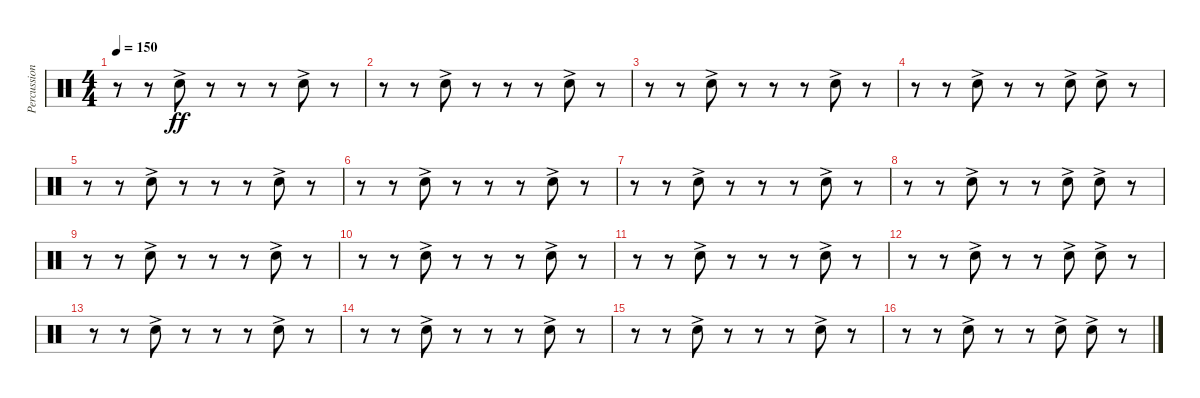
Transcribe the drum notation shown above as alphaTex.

\track ("Percussion" "Percussion") {instrument percussion}
\staff {score}
\articulation defaults
\ts (4 4)
\tempo 150
\clef neutral
\ks c
r.8{dy ff} r.8 "Snare (hit) 2"{ac}.8 r.8 r.8 r.8 "Snare (hit) 2"{ac}.8 r.8 |
r.8 r.8 "Snare (hit) 2"{ac}.8 r.8 r.8 r.8 "Snare (hit) 2"{ac}.8 r.8 |
r.8 r.8 "Snare (hit) 2"{ac}.8 r.8 r.8 r.8 "Snare (hit) 2"{ac}.8 r.8 |
r.8 r.8 "Snare (hit) 2"{ac}.8 r.8 r.8 "Snare (hit) 2"{ac}.8 "Snare (hit) 2"{ac}.8 r.8 |
r.8 r.8 "Snare (hit) 2"{ac}.8 r.8 r.8 r.8 "Snare (hit) 2"{ac}.8 r.8 |
r.8 r.8 "Snare (hit) 2"{ac}.8 r.8 r.8 r.8 "Snare (hit) 2"{ac}.8 r.8 |
r.8 r.8 "Snare (hit) 2"{ac}.8 r.8 r.8 r.8 "Snare (hit) 2"{ac}.8 r.8 |
r.8 r.8 "Snare (hit) 2"{ac}.8 r.8 r.8 "Snare (hit) 2"{ac}.8 "Snare (hit) 2"{ac}.8 r.8 |
r.8 r.8 "Snare (hit) 2"{ac}.8 r.8 r.8 r.8 "Snare (hit) 2"{ac}.8 r.8 |
r.8 r.8 "Snare (hit) 2"{ac}.8 r.8 r.8 r.8 "Snare (hit) 2"{ac}.8 r.8 |
r.8 r.8 "Snare (hit) 2"{ac}.8 r.8 r.8 r.8 "Snare (hit) 2"{ac}.8 r.8 |
r.8 r.8 "Snare (hit) 2"{ac}.8 r.8 r.8 "Snare (hit) 2"{ac}.8 "Snare (hit) 2"{ac}.8 r.8 |
r.8 r.8 "Snare (hit) 2"{ac}.8 r.8 r.8 r.8 "Snare (hit) 2"{ac}.8 r.8 |
r.8 r.8 "Snare (hit) 2"{ac}.8 r.8 r.8 r.8 "Snare (hit) 2"{ac}.8 r.8 |
r.8 r.8 "Snare (hit) 2"{ac}.8 r.8 r.8 r.8 "Snare (hit) 2"{ac}.8 r.8 |
r.8 r.8 "Snare (hit) 2"{ac}.8 r.8 r.8 "Snare (hit) 2"{ac}.8 "Snare (hit) 2"{ac}.8 r.8
